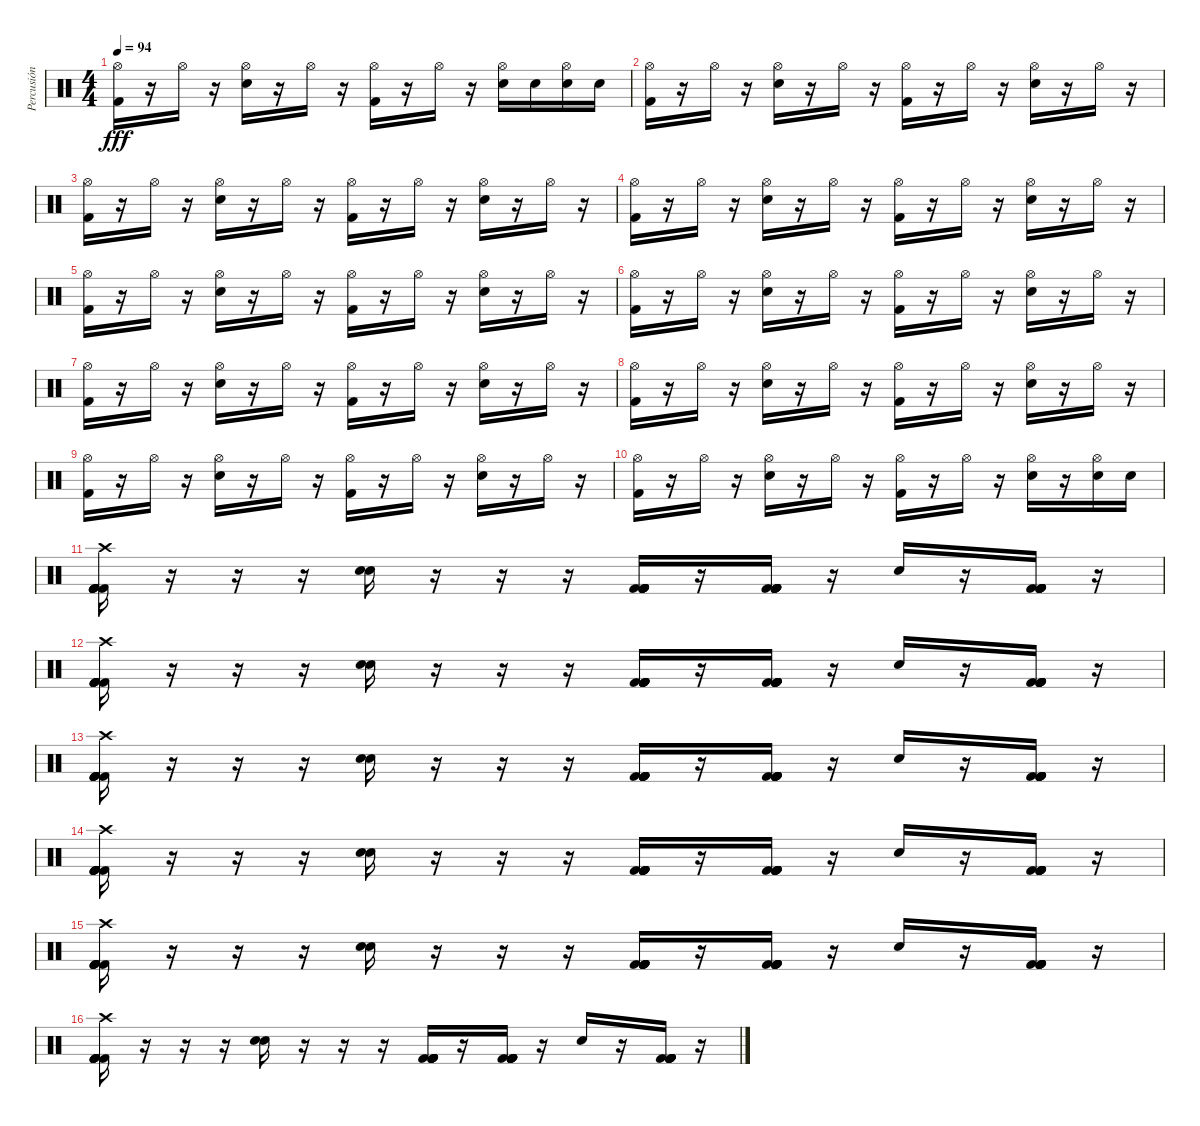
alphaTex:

\track ("Percusión" "Percusión") {instrument percussion}
\staff {score}
\articulation defaults
\ts (4 4)
\tempo 94
\clef neutral
\ks c
("Hi-Hat (open)" "Kick (hit) 2").16{dy fff} r.16 "Hi-Hat (open)".16 r.16 ("Hi-Hat (open)" "Snare (hit) 2").16 r.16 "Hi-Hat (open)".16 r.16 ("Hi-Hat (open)" "Kick (hit) 2").16 r.16 "Hi-Hat (open)".16 r.16 ("Hi-Hat (open)" "Snare (hit) 2").16 "Snare (hit) 2".16 ("Hi-Hat (open)" "Snare (hit) 2").16 "Snare (hit) 2".16 |
("Hi-Hat (open)" "Kick (hit) 2").16 r.16 "Hi-Hat (open)".16 r.16 ("Hi-Hat (open)" "Snare (hit) 2").16 r.16 "Hi-Hat (open)".16 r.16 ("Hi-Hat (open)" "Kick (hit) 2").16 r.16 "Hi-Hat (open)".16 r.16 ("Hi-Hat (open)" "Snare (hit) 2").16 r.16 "Hi-Hat (open)".16 r.16 |
("Hi-Hat (open)" "Kick (hit) 2").16 r.16 "Hi-Hat (open)".16 r.16 ("Hi-Hat (open)" "Snare (hit) 2").16 r.16 "Hi-Hat (open)".16 r.16 ("Hi-Hat (open)" "Kick (hit) 2").16 r.16 "Hi-Hat (open)".16 r.16 ("Hi-Hat (open)" "Snare (hit) 2").16 r.16 "Hi-Hat (open)".16 r.16 |
("Hi-Hat (open)" "Kick (hit) 2").16 r.16 "Hi-Hat (open)".16 r.16 ("Hi-Hat (open)" "Snare (hit) 2").16 r.16 "Hi-Hat (open)".16 r.16 ("Hi-Hat (open)" "Kick (hit) 2").16 r.16 "Hi-Hat (open)".16 r.16 ("Hi-Hat (open)" "Snare (hit) 2").16 r.16 "Hi-Hat (open)".16 r.16 |
("Hi-Hat (open)" "Kick (hit) 2").16 r.16 "Hi-Hat (open)".16 r.16 ("Hi-Hat (open)" "Snare (hit) 2").16 r.16 "Hi-Hat (open)".16 r.16 ("Hi-Hat (open)" "Kick (hit) 2").16 r.16 "Hi-Hat (open)".16 r.16 ("Hi-Hat (open)" "Snare (hit) 2").16 r.16 "Hi-Hat (open)".16 r.16 |
("Hi-Hat (open)" "Kick (hit) 2").16 r.16 "Hi-Hat (open)".16 r.16 ("Hi-Hat (open)" "Snare (hit) 2").16 r.16 "Hi-Hat (open)".16 r.16 ("Hi-Hat (open)" "Kick (hit) 2").16 r.16 "Hi-Hat (open)".16 r.16 ("Hi-Hat (open)" "Snare (hit) 2").16 r.16 "Hi-Hat (open)".16 r.16 |
("Hi-Hat (open)" "Kick (hit) 2").16 r.16 "Hi-Hat (open)".16 r.16 ("Hi-Hat (open)" "Snare (hit) 2").16 r.16 "Hi-Hat (open)".16 r.16 ("Hi-Hat (open)" "Kick (hit) 2").16 r.16 "Hi-Hat (open)".16 r.16 ("Hi-Hat (open)" "Snare (hit) 2").16 r.16 "Hi-Hat (open)".16 r.16 |
("Hi-Hat (open)" "Kick (hit) 2").16 r.16 "Hi-Hat (open)".16 r.16 ("Hi-Hat (open)" "Snare (hit) 2").16 r.16 "Hi-Hat (open)".16 r.16 ("Hi-Hat (open)" "Kick (hit) 2").16 r.16 "Hi-Hat (open)".16 r.16 ("Hi-Hat (open)" "Snare (hit) 2").16 r.16 "Hi-Hat (open)".16 r.16 |
("Hi-Hat (open)" "Kick (hit) 2").16 r.16 "Hi-Hat (open)".16 r.16 ("Hi-Hat (open)" "Snare (hit) 2").16 r.16 "Hi-Hat (open)".16 r.16 ("Hi-Hat (open)" "Kick (hit) 2").16 r.16 "Hi-Hat (open)".16 r.16 ("Hi-Hat (open)" "Snare (hit) 2").16 r.16 "Hi-Hat (open)".16 r.16 |
("Hi-Hat (open)" "Kick (hit) 2").16 r.16 "Hi-Hat (open)".16 r.16 ("Hi-Hat (open)" "Snare (hit) 2").16 r.16 "Hi-Hat (open)".16 r.16 ("Hi-Hat (open)" "Kick (hit) 2").16 r.16 "Hi-Hat (open)".16 r.16 ("Hi-Hat (open)" "Snare (hit) 2").16 r.16 ("Hi-Hat (open)" "Snare (hit) 2").16 "Snare (hit) 2".16 |
("Crash high (hit)" "Kick (hit) 2" "Kick (hit) 2" "Kick (hit) 2" "Kick (hit) 2" "Kick (hit) 2").16 r.16 r.16 r.16 ("Snare (hit) 2" "Snare (hit) 2").16 r.16 r.16 r.16 ("Kick (hit) 2" "Kick (hit) 2" "Kick (hit) 2" "Kick (hit) 2" "Kick (hit) 2" "Kick (hit) 2").16 r.16 ("Kick (hit) 2" "Kick (hit) 2" "Kick (hit) 2" "Kick (hit) 2" "Kick (hit) 2" "Kick (hit) 2").16 r.16 "Snare (hit) 2".16 r.16 ("Kick (hit) 2" "Kick (hit) 2" "Kick (hit) 2" "Kick (hit) 2" "Kick (hit) 2" "Kick (hit) 2").16 r.16 |
("Crash high (hit)" "Kick (hit) 2" "Kick (hit) 2" "Kick (hit) 2" "Kick (hit) 2" "Kick (hit) 2").16 r.16 r.16 r.16 ("Snare (hit) 2" "Snare (hit) 2").16 r.16 r.16 r.16 ("Kick (hit) 2" "Kick (hit) 2" "Kick (hit) 2" "Kick (hit) 2" "Kick (hit) 2" "Kick (hit) 2").16 r.16 ("Kick (hit) 2" "Kick (hit) 2" "Kick (hit) 2" "Kick (hit) 2" "Kick (hit) 2" "Kick (hit) 2").16 r.16 "Snare (hit) 2".16 r.16 ("Kick (hit) 2" "Kick (hit) 2" "Kick (hit) 2" "Kick (hit) 2" "Kick (hit) 2" "Kick (hit) 2").16 r.16 |
("Crash high (hit)" "Kick (hit) 2" "Kick (hit) 2" "Kick (hit) 2" "Kick (hit) 2" "Kick (hit) 2").16 r.16 r.16 r.16 ("Snare (hit) 2" "Snare (hit) 2").16 r.16 r.16 r.16 ("Kick (hit) 2" "Kick (hit) 2" "Kick (hit) 2" "Kick (hit) 2" "Kick (hit) 2" "Kick (hit) 2").16 r.16 ("Kick (hit) 2" "Kick (hit) 2" "Kick (hit) 2" "Kick (hit) 2" "Kick (hit) 2" "Kick (hit) 2").16 r.16 "Snare (hit) 2".16 r.16 ("Kick (hit) 2" "Kick (hit) 2" "Kick (hit) 2" "Kick (hit) 2" "Kick (hit) 2" "Kick (hit) 2").16 r.16 |
("Crash high (hit)" "Kick (hit) 2" "Kick (hit) 2" "Kick (hit) 2" "Kick (hit) 2" "Kick (hit) 2").16 r.16 r.16 r.16 ("Snare (hit) 2" "Snare (hit) 2").16 r.16 r.16 r.16 ("Kick (hit) 2" "Kick (hit) 2" "Kick (hit) 2" "Kick (hit) 2" "Kick (hit) 2" "Kick (hit) 2").16 r.16 ("Kick (hit) 2" "Kick (hit) 2" "Kick (hit) 2" "Kick (hit) 2" "Kick (hit) 2" "Kick (hit) 2").16 r.16 "Snare (hit) 2".16 r.16 ("Kick (hit) 2" "Kick (hit) 2" "Kick (hit) 2" "Kick (hit) 2" "Kick (hit) 2" "Kick (hit) 2").16 r.16 |
("Crash high (hit)" "Kick (hit) 2" "Kick (hit) 2" "Kick (hit) 2" "Kick (hit) 2" "Kick (hit) 2").16 r.16 r.16 r.16 ("Snare (hit) 2" "Snare (hit) 2").16 r.16 r.16 r.16 ("Kick (hit) 2" "Kick (hit) 2" "Kick (hit) 2" "Kick (hit) 2" "Kick (hit) 2" "Kick (hit) 2").16 r.16 ("Kick (hit) 2" "Kick (hit) 2" "Kick (hit) 2" "Kick (hit) 2" "Kick (hit) 2" "Kick (hit) 2").16 r.16 "Snare (hit) 2".16 r.16 ("Kick (hit) 2" "Kick (hit) 2" "Kick (hit) 2" "Kick (hit) 2" "Kick (hit) 2" "Kick (hit) 2").16 r.16 |
("Crash high (hit)" "Kick (hit) 2" "Kick (hit) 2" "Kick (hit) 2" "Kick (hit) 2" "Kick (hit) 2").16 r.16 r.16 r.16 ("Snare (hit) 2" "Snare (hit) 2").16 r.16 r.16 r.16 ("Kick (hit) 2" "Kick (hit) 2" "Kick (hit) 2" "Kick (hit) 2" "Kick (hit) 2" "Kick (hit) 2").16 r.16 ("Kick (hit) 2" "Kick (hit) 2" "Kick (hit) 2" "Kick (hit) 2" "Kick (hit) 2" "Kick (hit) 2").16 r.16 "Snare (hit) 2".16 r.16 ("Kick (hit) 2" "Kick (hit) 2" "Kick (hit) 2" "Kick (hit) 2" "Kick (hit) 2" "Kick (hit) 2").16 r.16
